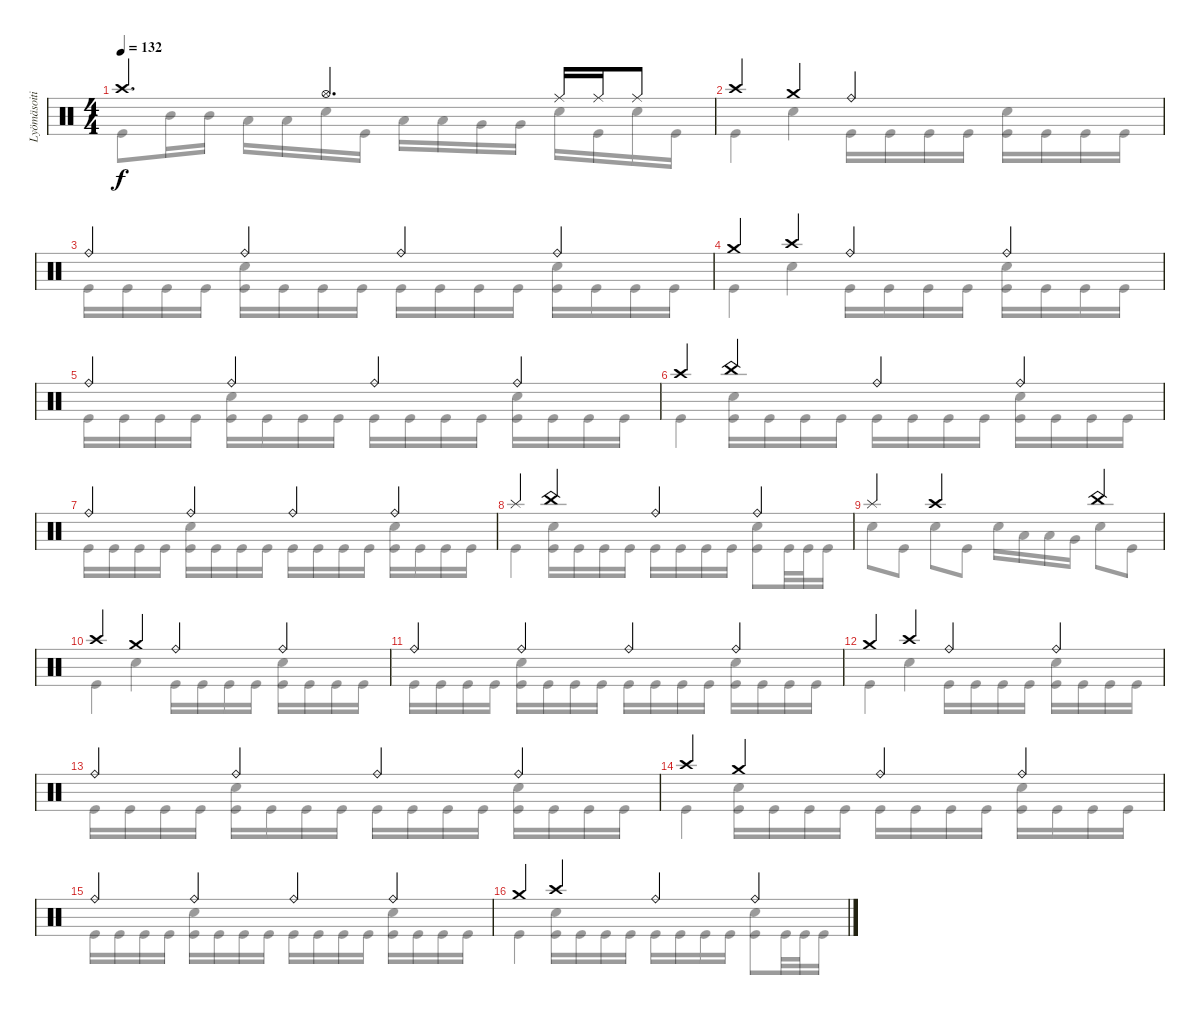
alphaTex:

\track ("Lyömäsoitin" "Lyömäsoiti") {instrument percussion}
\staff {score}
\articulation defaults
\voice
\ts (4 4)
\tempo 132
\clef neutral
\ks c "Crash high (hit)".4{d dy f} "Hi-Hat (open)".4{d} "Ride (middle)".16 "Ride (middle)".16 "Ride (middle)".8
|
"Crash high (hit)".4 "Crash medium (hit)".4 "Ride (bell)".2 |
"Ride (bell)".4 "Ride (bell)".4 "Ride (bell)".4 "Ride (bell)".4 |
"Crash medium (hit)".4 "Crash high (hit)".4 "Ride (bell)".4 "Ride (bell)".4 |
"Ride (bell)".4 "Ride (bell)".4 "Ride (bell)".4 "Ride (bell)".4 |
"Crash high (hit)".4 "China (hit)".4 "Ride (bell)".4 "Ride (bell)".4 |
"Ride (bell)".4 "Ride (bell)".4 "Ride (bell)".4 "Ride (bell)".4 |
"Splash (hit)".4 "China (hit)".4 "Ride (bell)".4 "Ride (bell)".4 |
"Splash (hit)".4 "Crash high (hit)".2 "China (hit)".4 |
"Crash high (hit)".4 "Crash medium (hit)".4 "Ride (bell)".4 "Ride (bell)".4 |
"Ride (bell)".4 "Ride (bell)".4 "Ride (bell)".4 "Ride (bell)".4 |
"Crash medium (hit)".4 "Crash high (hit)".4 "Ride (bell)".4 "Ride (bell)".4 |
"Ride (bell)".4 "Ride (bell)".4 "Ride (bell)".4 "Ride (bell)".4 |
"Crash high (hit)".4 "Crash medium (hit)".4 "Ride (bell)".4 "Ride (bell)".4 |
"Ride (bell)".4 "Ride (bell)".4 "Ride (bell)".4 "Ride (bell)".4 |
"Crash medium (hit)".4 "Crash high (hit)".4 "Ride (bell)".4 "Ride (bell)".4
\voice
\clef neutral
\ottava regular
\simile none
\ks c "Kick (hit)".8{dy f} "Mid Tom (hit)".16 "Mid Tom (hit)".16 "Low Tom (hit)".16 "Low Tom (hit)".16 "Electric Snare (hit)".16 "Kick (hit)".16 "Low Tom (hit)".16 "Low Tom (hit)".16 "Very Low Tom (hit)".16 "Very Low Tom (hit)".16 "Electric Snare (hit)".16 "Kick (hit)".16 "Electric Snare (hit)".16 "Kick (hit)".16
|
"Kick (hit)".4 "Electric Snare (hit)".4 "Kick (hit)".16 "Kick (hit)".16 "Kick (hit)".16 "Kick (hit)".16 ("Electric Snare (hit)" "Kick (hit)").16 "Kick (hit)".16 "Kick (hit)".16 "Kick (hit)".16 |
"Kick (hit)".16 "Kick (hit)".16 "Kick (hit)".16 "Kick (hit)".16 ("Electric Snare (hit)" "Kick (hit)").16 "Kick (hit)".16 "Kick (hit)".16 "Kick (hit)".16 "Kick (hit)".16 "Kick (hit)".16 "Kick (hit)".16 "Kick (hit)".16 ("Electric Snare (hit)" "Kick (hit)").16 "Kick (hit)".16 "Kick (hit)".16 "Kick (hit)".16 |
"Kick (hit)".4 "Electric Snare (hit)".4 "Kick (hit)".16 "Kick (hit)".16 "Kick (hit)".16 "Kick (hit)".16 ("Electric Snare (hit)" "Kick (hit)").16 "Kick (hit)".16 "Kick (hit)".16 "Kick (hit)".16 |
"Kick (hit)".16 "Kick (hit)".16 "Kick (hit)".16 "Kick (hit)".16 ("Electric Snare (hit)" "Kick (hit)").16 "Kick (hit)".16 "Kick (hit)".16 "Kick (hit)".16 "Kick (hit)".16 "Kick (hit)".16 "Kick (hit)".16 "Kick (hit)".16 ("Electric Snare (hit)" "Kick (hit)").16 "Kick (hit)".16 "Kick (hit)".16 "Kick (hit)".16 |
"Kick (hit)".4 ("Electric Snare (hit)" "Kick (hit)").16 "Kick (hit)".16 "Kick (hit)".16 "Kick (hit)".16 "Kick (hit)".16 "Kick (hit)".16 "Kick (hit)".16 "Kick (hit)".16 ("Electric Snare (hit)" "Kick (hit)").16 "Kick (hit)".16 "Kick (hit)".16 "Kick (hit)".16 |
"Kick (hit)".16 "Kick (hit)".16 "Kick (hit)".16 "Kick (hit)".16 ("Electric Snare (hit)" "Kick (hit)").16 "Kick (hit)".16 "Kick (hit)".16 "Kick (hit)".16 "Kick (hit)".16 "Kick (hit)".16 "Kick (hit)".16 "Kick (hit)".16 ("Electric Snare (hit)" "Kick (hit)").16 "Kick (hit)".16 "Kick (hit)".16 "Kick (hit)".16 |
"Kick (hit)".4 ("Electric Snare (hit)" "Kick (hit)").16 "Kick (hit)".16 "Kick (hit)".16 "Kick (hit)".16 "Kick (hit)".16 "Kick (hit)".16 "Kick (hit)".16 "Kick (hit)".16 ("Electric Snare (hit)" "Kick (hit)").8 "Kick (hit)".32 "Kick (hit)".32 "Kick (hit)".16 |
"Electric Snare (hit)".8 "Kick (hit)".8 "Electric Snare (hit)".8 "Kick (hit)".8 "Electric Snare (hit)".16 "Low Tom (hit)".16 "Low Tom (hit)".16 "Very Low Tom (hit)".16 "Electric Snare (hit)".8 "Kick (hit)".8 |
"Kick (hit)".4 "Electric Snare (hit)".4 "Kick (hit)".16 "Kick (hit)".16 "Kick (hit)".16 "Kick (hit)".16 ("Electric Snare (hit)" "Kick (hit)").16 "Kick (hit)".16 "Kick (hit)".16 "Kick (hit)".16 |
"Kick (hit)".16 "Kick (hit)".16 "Kick (hit)".16 "Kick (hit)".16 ("Electric Snare (hit)" "Kick (hit)").16 "Kick (hit)".16 "Kick (hit)".16 "Kick (hit)".16 "Kick (hit)".16 "Kick (hit)".16 "Kick (hit)".16 "Kick (hit)".16 ("Electric Snare (hit)" "Kick (hit)").16 "Kick (hit)".16 "Kick (hit)".16 "Kick (hit)".16 |
"Kick (hit)".4 "Electric Snare (hit)".4 "Kick (hit)".16 "Kick (hit)".16 "Kick (hit)".16 "Kick (hit)".16 ("Electric Snare (hit)" "Kick (hit)").16 "Kick (hit)".16 "Kick (hit)".16 "Kick (hit)".16 |
"Kick (hit)".16 "Kick (hit)".16 "Kick (hit)".16 "Kick (hit)".16 ("Electric Snare (hit)" "Kick (hit)").16 "Kick (hit)".16 "Kick (hit)".16 "Kick (hit)".16 "Kick (hit)".16 "Kick (hit)".16 "Kick (hit)".16 "Kick (hit)".16 ("Electric Snare (hit)" "Kick (hit)").16 "Kick (hit)".16 "Kick (hit)".16 "Kick (hit)".16 |
"Kick (hit)".4 ("Electric Snare (hit)" "Kick (hit)").16 "Kick (hit)".16 "Kick (hit)".16 "Kick (hit)".16 "Kick (hit)".16 "Kick (hit)".16 "Kick (hit)".16 "Kick (hit)".16 ("Electric Snare (hit)" "Kick (hit)").16 "Kick (hit)".16 "Kick (hit)".16 "Kick (hit)".16 |
"Kick (hit)".16 "Kick (hit)".16 "Kick (hit)".16 "Kick (hit)".16 ("Electric Snare (hit)" "Kick (hit)").16 "Kick (hit)".16 "Kick (hit)".16 "Kick (hit)".16 "Kick (hit)".16 "Kick (hit)".16 "Kick (hit)".16 "Kick (hit)".16 ("Electric Snare (hit)" "Kick (hit)").16 "Kick (hit)".16 "Kick (hit)".16 "Kick (hit)".16 |
"Kick (hit)".4 ("Electric Snare (hit)" "Kick (hit)").16 "Kick (hit)".16 "Kick (hit)".16 "Kick (hit)".16 "Kick (hit)".16 "Kick (hit)".16 "Kick (hit)".16 "Kick (hit)".16 ("Electric Snare (hit)" "Kick (hit)").8 "Kick (hit)".32 "Kick (hit)".32 "Kick (hit)".16
